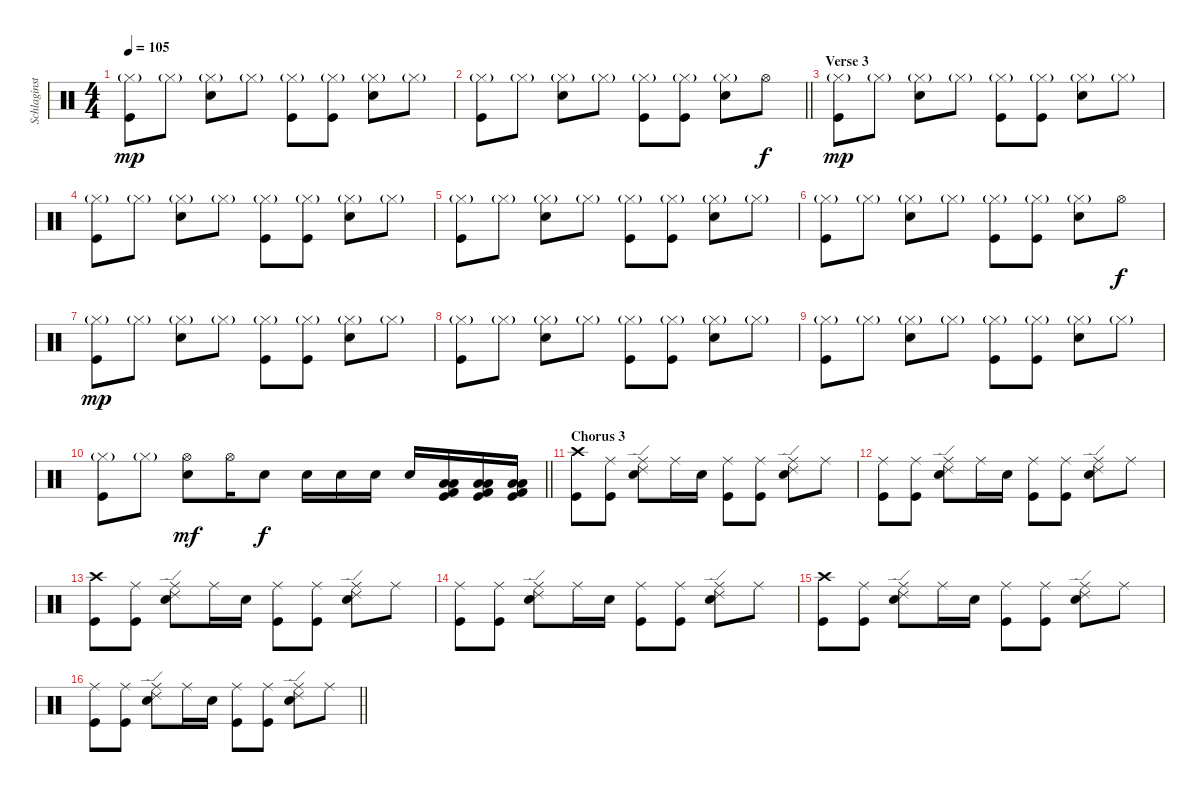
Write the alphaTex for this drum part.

\track ("Schlaginstrumente - Auswahl" "Schlaginst") {instrument percussion}
\staff {score}
\articulation defaults
\ts (4 4)
\tempo 105
\clef neutral
\ks c
("Hi-Hat (closed)"{g} "Kick (hit)").8{dy mp} "Hi-Hat (closed)"{g}.8 ("Hi-Hat (closed)"{g} "Snare (hit) 2").8 "Hi-Hat (closed)"{g}.8 ("Hi-Hat (closed)"{g} "Kick (hit)").8 ("Hi-Hat (closed)"{g} "Kick (hit)").8 ("Hi-Hat (closed)"{g} "Snare (hit) 2").8 "Hi-Hat (closed)"{g}.8 |
\barLineRight lightlight
("Hi-Hat (closed)"{g} "Kick (hit)").8 "Hi-Hat (closed)"{g}.8 ("Hi-Hat (closed)"{g} "Snare (hit) 2").8 "Hi-Hat (closed)"{g}.8 ("Hi-Hat (closed)"{g} "Kick (hit)").8 ("Hi-Hat (closed)"{g} "Kick (hit)").8 ("Hi-Hat (closed)"{g} "Snare (hit) 2").8 "Hi-Hat (open)".8{dy f} |
\section ("" "Verse 3")
("Hi-Hat (closed)"{g} "Kick (hit)").8{dy mp} "Hi-Hat (closed)"{g}.8 ("Hi-Hat (closed)"{g} "Snare (hit) 2").8 "Hi-Hat (closed)"{g}.8 ("Hi-Hat (closed)"{g} "Kick (hit)").8 ("Hi-Hat (closed)"{g} "Kick (hit)").8 ("Hi-Hat (closed)"{g} "Snare (hit) 2").8 "Hi-Hat (closed)"{g}.8 |
("Hi-Hat (closed)"{g} "Kick (hit)").8 "Hi-Hat (closed)"{g}.8 ("Hi-Hat (closed)"{g} "Snare (hit) 2").8 "Hi-Hat (closed)"{g}.8 ("Hi-Hat (closed)"{g} "Kick (hit)").8 ("Hi-Hat (closed)"{g} "Kick (hit)").8 ("Hi-Hat (closed)"{g} "Snare (hit) 2").8 "Hi-Hat (closed)"{g}.8 |
("Hi-Hat (closed)"{g} "Kick (hit)").8 "Hi-Hat (closed)"{g}.8 ("Hi-Hat (closed)"{g} "Snare (hit) 2").8 "Hi-Hat (closed)"{g}.8 ("Hi-Hat (closed)"{g} "Kick (hit)").8 ("Hi-Hat (closed)"{g} "Kick (hit)").8 ("Hi-Hat (closed)"{g} "Snare (hit) 2").8 "Hi-Hat (closed)"{g}.8 |
("Hi-Hat (closed)"{g} "Kick (hit)").8 "Hi-Hat (closed)"{g}.8 ("Hi-Hat (closed)"{g} "Snare (hit) 2").8 "Hi-Hat (closed)"{g}.8 ("Hi-Hat (closed)"{g} "Kick (hit)").8 ("Hi-Hat (closed)"{g} "Kick (hit)").8 ("Hi-Hat (closed)"{g} "Snare (hit) 2").8 "Hi-Hat (open)".8{dy f} |
("Hi-Hat (closed)"{g} "Kick (hit)").8{dy mp} "Hi-Hat (closed)"{g}.8 ("Hi-Hat (closed)"{g} "Snare (hit) 2").8 "Hi-Hat (closed)"{g}.8 ("Hi-Hat (closed)"{g} "Kick (hit)").8 ("Hi-Hat (closed)"{g} "Kick (hit)").8 ("Hi-Hat (closed)"{g} "Snare (hit) 2").8 "Hi-Hat (closed)"{g}.8 |
("Hi-Hat (closed)"{g} "Kick (hit)").8 "Hi-Hat (closed)"{g}.8 ("Hi-Hat (closed)"{g} "Snare (hit) 2").8 "Hi-Hat (closed)"{g}.8 ("Hi-Hat (closed)"{g} "Kick (hit)").8 ("Hi-Hat (closed)"{g} "Kick (hit)").8 ("Hi-Hat (closed)"{g} "Snare (hit) 2").8 "Hi-Hat (closed)"{g}.8 |
("Hi-Hat (closed)"{g} "Kick (hit)").8 "Hi-Hat (closed)"{g}.8 ("Hi-Hat (closed)"{g} "Snare (hit) 2").8 "Hi-Hat (closed)"{g}.8 ("Hi-Hat (closed)"{g} "Kick (hit)").8 ("Hi-Hat (closed)"{g} "Kick (hit)").8 ("Hi-Hat (closed)"{g} "Snare (hit) 2").8 "Hi-Hat (closed)"{g}.8 |
\barLineRight lightlight
("Hi-Hat (closed)"{g} "Kick (hit)").8 "Hi-Hat (closed)"{g}.8 ("Hi-Hat (open)" "Snare (hit) 2").8{dy mf} "Hi-Hat (open)".16 "Snare (hit) 2".8{dy f} "Snare (hit) 2".16 "Snare (hit) 2".16 "Snare (hit) 2".16 "Snare (hit) 2".16 ("Low Tom (hit)" "Low Floor Tom (hit)" "Kick (hit)" "Kick (hit) 2").16 ("Low Tom (hit)" "Low Floor Tom (hit)" "Kick (hit)" "Kick (hit) 2").16 ("Low Tom (hit)" "Low Floor Tom (hit)" "Kick (hit)" "Kick (hit) 2").16 |
\section ("" "Chorus 3")
("Crash high (hit)" "Kick (hit)").8 ("Ride (middle)" "Kick (hit)").8 ("Ride (middle)" "Ride (edge) 2" "Snare (hit) 2").8 "Ride (middle)".16 "Snare (hit) 2".16 ("Ride (middle)" "Kick (hit)").8 ("Ride (middle)" "Kick (hit)").8 ("Ride (middle)" "Ride (edge) 2" "Snare (hit) 2").8 "Ride (middle)".8 |
("Ride (middle)" "Kick (hit)").8 ("Ride (middle)" "Kick (hit)").8 ("Ride (middle)" "Ride (edge) 2" "Snare (hit) 2").8 "Ride (middle)".16 "Snare (hit) 2".16 ("Ride (middle)" "Kick (hit)").8 ("Ride (middle)" "Kick (hit)").8 ("Ride (middle)" "Ride (edge) 2" "Snare (hit) 2").8 "Ride (middle)".8 |
("Crash high (hit)" "Kick (hit)").8 ("Ride (middle)" "Kick (hit)").8 ("Ride (middle)" "Ride (edge) 2" "Snare (hit) 2").8 "Ride (middle)".16 "Snare (hit) 2".16 ("Ride (middle)" "Kick (hit)").8 ("Ride (middle)" "Kick (hit)").8 ("Ride (middle)" "Ride (edge) 2" "Snare (hit) 2").8 "Ride (middle)".8 |
("Ride (middle)" "Kick (hit)").8 ("Ride (middle)" "Kick (hit)").8 ("Ride (middle)" "Ride (edge) 2" "Snare (hit) 2").8 "Ride (middle)".16 "Snare (hit) 2".16 ("Ride (middle)" "Kick (hit)").8 ("Ride (middle)" "Kick (hit)").8 ("Ride (middle)" "Ride (edge) 2" "Snare (hit) 2").8 "Ride (middle)".8 |
("Crash high (hit)" "Kick (hit)").8 ("Ride (middle)" "Kick (hit)").8 ("Ride (middle)" "Ride (edge) 2" "Snare (hit) 2").8 "Ride (middle)".16 "Snare (hit) 2".16 ("Ride (middle)" "Kick (hit)").8 ("Ride (middle)" "Kick (hit)").8 ("Ride (middle)" "Ride (edge) 2" "Snare (hit) 2").8 "Ride (middle)".8 |
\barLineRight lightlight
("Ride (middle)" "Kick (hit)").8 ("Ride (middle)" "Kick (hit)").8 ("Ride (middle)" "Ride (edge) 2" "Snare (hit) 2").8 "Ride (middle)".16 "Snare (hit) 2".16 ("Ride (middle)" "Kick (hit)").8 ("Ride (middle)" "Kick (hit)").8 ("Ride (middle)" "Ride (edge) 2" "Snare (hit) 2").8 "Ride (middle)".8
